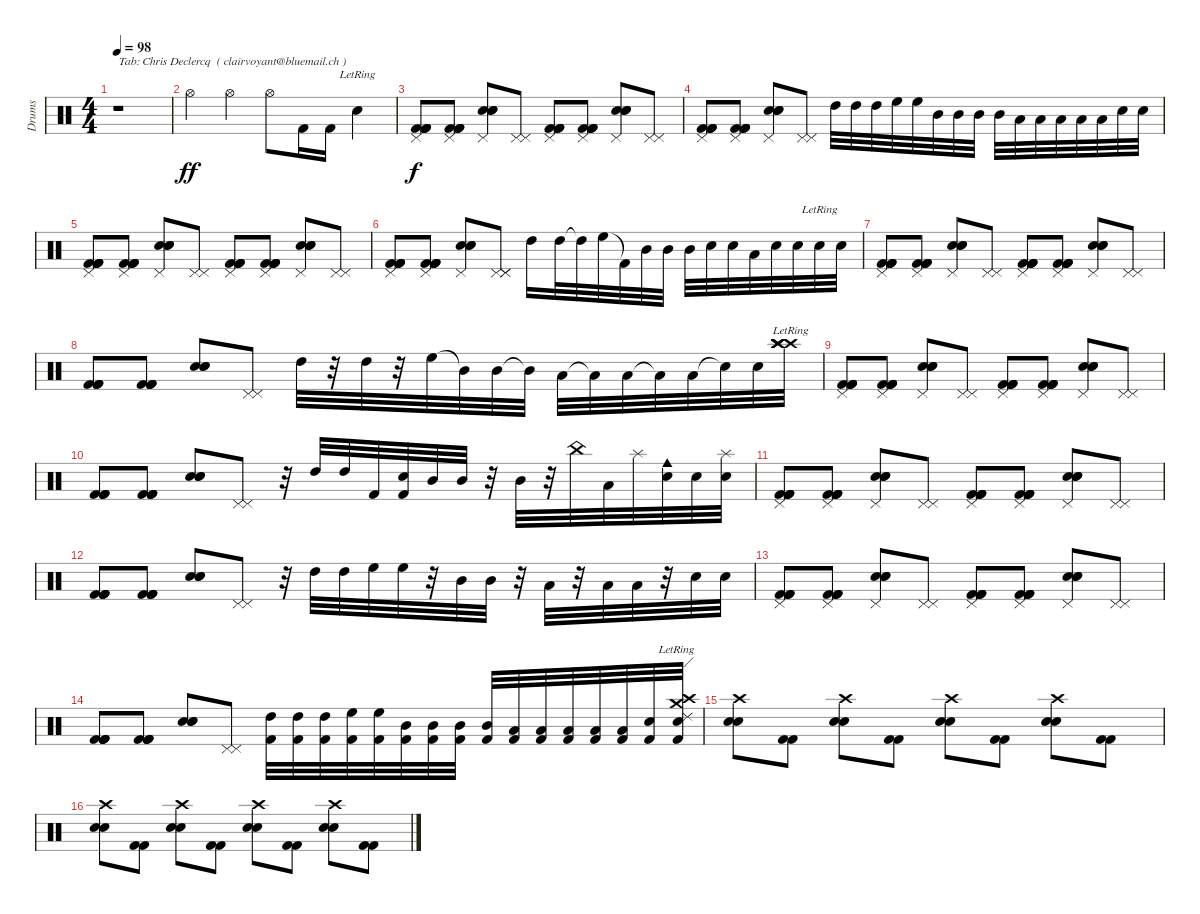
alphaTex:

\track ("Drums" "Drums") {instrument percussion}
\staff {score}
\articulation defaults
\ts (4 4)
\tempo 98
\clef neutral
\ks c
r.1{txt "Tab: Chris Declercq  ( clairvoyant@bluemail.ch )" dy ff} |
"Hi-Hat (open)".4 "Hi-Hat (open)".4 "Hi-Hat (open)".8 "Kick (hit) 2".16 "Kick (hit) 2".16 "Electric Snare (hit)"{lr}.4 |
("Pedal Hi-Hat (hit)" "Kick (hit) 2" "Kick (hit) 2" "Kick (hit) 2" "Kick (hit) 2").8{dy f} ("Pedal Hi-Hat (hit)" "Kick (hit) 2" "Kick (hit) 2" "Kick (hit) 2" "Kick (hit) 2").8 ("Pedal Hi-Hat (hit)" "Electric Snare (hit)" "Electric Snare (hit)" "Electric Snare (hit)").8 ("Pedal Hi-Hat (hit)" "Pedal Hi-Hat (hit)").8 ("Pedal Hi-Hat (hit)" "Kick (hit) 2" "Kick (hit) 2" "Kick (hit) 2" "Kick (hit) 2").8 ("Pedal Hi-Hat (hit)" "Kick (hit) 2" "Kick (hit) 2" "Kick (hit) 2" "Kick (hit) 2").8 ("Pedal Hi-Hat (hit)" "Electric Snare (hit)" "Electric Snare (hit)" "Electric Snare (hit)").8 ("Pedal Hi-Hat (hit)" "Pedal Hi-Hat (hit)").8 |
("Pedal Hi-Hat (hit)" "Kick (hit) 2" "Kick (hit) 2" "Kick (hit) 2" "Kick (hit) 2").8 ("Pedal Hi-Hat (hit)" "Kick (hit) 2" "Kick (hit) 2" "Kick (hit) 2" "Kick (hit) 2").8 ("Pedal Hi-Hat (hit)" "Electric Snare (hit)" "Electric Snare (hit)" "Electric Snare (hit)").8 ("Pedal Hi-Hat (hit)" "Pedal Hi-Hat (hit)").8 "High Tom (hit)".32 "High Tom (hit)".32 "High Tom (hit)".32 "High Floor Tom (hit)".32 "High Floor Tom (hit)".32 "Mid Tom (hit)".32 "Mid Tom (hit)".32 "Mid Tom (hit)".32 "Mid Tom (hit)".32 "Low Tom (hit)".32 "Low Tom (hit)".32 "Low Tom (hit)".32 "Low Floor Tom (hit)".32 "Low Floor Tom (hit)".32 "Electric Snare (hit)".32 "Electric Snare (hit)".32 |
("Pedal Hi-Hat (hit)" "Kick (hit) 2" "Kick (hit) 2" "Kick (hit) 2" "Kick (hit) 2").8 ("Pedal Hi-Hat (hit)" "Kick (hit) 2" "Kick (hit) 2" "Kick (hit) 2" "Kick (hit) 2").8 ("Pedal Hi-Hat (hit)" "Electric Snare (hit)" "Electric Snare (hit)" "Electric Snare (hit)").8 ("Pedal Hi-Hat (hit)" "Pedal Hi-Hat (hit)").8 ("Pedal Hi-Hat (hit)" "Kick (hit) 2" "Kick (hit) 2" "Kick (hit) 2" "Kick (hit) 2").8 ("Pedal Hi-Hat (hit)" "Kick (hit) 2" "Kick (hit) 2" "Kick (hit) 2" "Kick (hit) 2").8 ("Pedal Hi-Hat (hit)" "Electric Snare (hit)" "Electric Snare (hit)" "Electric Snare (hit)").8 ("Pedal Hi-Hat (hit)" "Pedal Hi-Hat (hit)").8 |
("Pedal Hi-Hat (hit)" "Kick (hit) 2" "Kick (hit) 2" "Kick (hit) 2" "Kick (hit) 2").8 ("Pedal Hi-Hat (hit)" "Kick (hit) 2" "Kick (hit) 2" "Kick (hit) 2" "Kick (hit) 2").8 ("Pedal Hi-Hat (hit)" "Electric Snare (hit)" "Electric Snare (hit)" "Electric Snare (hit)").8 ("Pedal Hi-Hat (hit)" "Pedal Hi-Hat (hit)" "Pedal Hi-Hat (hit)").8 "High Tom (hit)".16 "High Tom (hit)".32 "High Tom (hit)"{t}.32 "High Floor Tom (hit)".32 "Kick (hit) 2"{t}.32 "Mid Tom (hit)".32 "Mid Tom (hit)".32 "Mid Tom (hit)".32 "Snare (hit) 2".32 "Snare (hit) 2".32 "Low Tom (hit)".32 "Snare (hit) 2".32 "Electric Snare (hit)".32 "Snare (hit) 2"{lr}.32 "Snare (hit) 2".32 |
("Pedal Hi-Hat (hit)" "Kick (hit) 2" "Kick (hit) 2" "Kick (hit) 2" "Kick (hit) 2").8 ("Pedal Hi-Hat (hit)" "Kick (hit) 2" "Kick (hit) 2" "Kick (hit) 2" "Kick (hit) 2").8 ("Pedal Hi-Hat (hit)" "Electric Snare (hit)" "Electric Snare (hit)" "Electric Snare (hit)").8 ("Pedal Hi-Hat (hit)" "Pedal Hi-Hat (hit)").8 ("Pedal Hi-Hat (hit)" "Kick (hit) 2" "Kick (hit) 2" "Kick (hit) 2" "Kick (hit) 2").8 ("Pedal Hi-Hat (hit)" "Kick (hit) 2" "Kick (hit) 2" "Kick (hit) 2" "Kick (hit) 2").8 ("Pedal Hi-Hat (hit)" "Electric Snare (hit)" "Electric Snare (hit)" "Electric Snare (hit)").8 ("Pedal Hi-Hat (hit)" "Pedal Hi-Hat (hit)").8 |
("Kick (hit) 2" "Kick (hit) 2" "Kick (hit) 2" "Kick (hit) 2").8 ("Kick (hit) 2" "Kick (hit) 2" "Kick (hit) 2" "Kick (hit) 2").8 ("Electric Snare (hit)" "Electric Snare (hit)" "Electric Snare (hit)").8 ("Pedal Hi-Hat (hit)" "Pedal Hi-Hat (hit)").8 "High Tom (hit)".32 r.32 "High Tom (hit)".32 r.32 "High Floor Tom (hit)".32 "Mid Tom (hit)"{t}.32 "Mid Tom (hit)".32 "Mid Tom (hit)"{t}.32 "Low Tom (hit)".32 "Low Tom (hit)"{t}.32 "Low Tom (hit)".32 "Low Tom (hit)"{t}.32 "Low Floor Tom (hit)".32 "Snare (hit)"{t}.32 "Electric Snare (hit)".32 ("Crash high (hit)"{lr} "Crash high (hit)"{lr} "Crash high (hit)"{lr} "Crash high (hit)"{lr}).32 |
("Pedal Hi-Hat (hit)" "Kick (hit) 2" "Kick (hit) 2" "Kick (hit) 2" "Kick (hit) 2").8 ("Pedal Hi-Hat (hit)" "Kick (hit) 2" "Kick (hit) 2" "Kick (hit) 2" "Kick (hit) 2").8 ("Pedal Hi-Hat (hit)" "Electric Snare (hit)" "Electric Snare (hit)" "Electric Snare (hit)").8 ("Pedal Hi-Hat (hit)" "Pedal Hi-Hat (hit)").8 ("Pedal Hi-Hat (hit)" "Kick (hit) 2" "Kick (hit) 2" "Kick (hit) 2" "Kick (hit) 2").8 ("Pedal Hi-Hat (hit)" "Kick (hit) 2" "Kick (hit) 2" "Kick (hit) 2" "Kick (hit) 2").8 ("Pedal Hi-Hat (hit)" "Electric Snare (hit)" "Electric Snare (hit)" "Electric Snare (hit)").8 ("Pedal Hi-Hat (hit)" "Pedal Hi-Hat (hit)").8 |
("Kick (hit) 2" "Kick (hit) 2" "Kick (hit) 2" "Kick (hit) 2").8 ("Kick (hit) 2" "Kick (hit) 2" "Kick (hit) 2" "Kick (hit) 2").8 ("Electric Snare (hit)" "Electric Snare (hit)" "Electric Snare (hit)").8 ("Pedal Hi-Hat (hit)" "Pedal Hi-Hat (hit)").8 r.32 "High Tom (hit)".32 "High Tom (hit)".32 "Kick (hit) 2".32 ("Electric Snare (hit)" "Kick (hit) 2").32 "Mid Tom (hit)".32 "Mid Tom (hit)".32 r.32 "Mid Tom (hit)".32 r.32 "China (hit)".32 "Low Tom (hit)".32 "Splash (hit)".32 ("Electric Snare (hit)" "Cowbell medium (hit)").32 "Electric Snare (hit)".32 ("Splash (hit)" "Electric Snare (hit)").32 |
("Pedal Hi-Hat (hit)" "Kick (hit) 2" "Kick (hit) 2" "Kick (hit) 2" "Kick (hit) 2").8 ("Pedal Hi-Hat (hit)" "Kick (hit) 2" "Kick (hit) 2" "Kick (hit) 2" "Kick (hit) 2").8 ("Pedal Hi-Hat (hit)" "Electric Snare (hit)" "Electric Snare (hit)" "Electric Snare (hit)").8 ("Pedal Hi-Hat (hit)" "Pedal Hi-Hat (hit)").8 ("Pedal Hi-Hat (hit)" "Kick (hit) 2" "Kick (hit) 2" "Kick (hit) 2" "Kick (hit) 2").8 ("Pedal Hi-Hat (hit)" "Kick (hit) 2" "Kick (hit) 2" "Kick (hit) 2" "Kick (hit) 2").8 ("Pedal Hi-Hat (hit)" "Electric Snare (hit)" "Electric Snare (hit)" "Electric Snare (hit)").8 ("Pedal Hi-Hat (hit)" "Pedal Hi-Hat (hit)").8 |
("Kick (hit) 2" "Kick (hit) 2" "Kick (hit) 2" "Kick (hit) 2").8 ("Kick (hit) 2" "Kick (hit) 2" "Kick (hit) 2" "Kick (hit) 2").8 ("Electric Snare (hit)" "Electric Snare (hit)" "Electric Snare (hit)").8 ("Pedal Hi-Hat (hit)" "Pedal Hi-Hat (hit)").8 r.32 "High Tom (hit)".32 "High Tom (hit)".32 "High Floor Tom (hit)".32 "High Floor Tom (hit)".32 r.32 "Mid Tom (hit)".32 "Mid Tom (hit)".32 r.32 "Low Floor Tom (hit)".32 r.32 "Low Tom (hit)".32 "Low Floor Tom (hit)".32 r.32 "Electric Snare (hit)".32 "Electric Snare (hit)".32 |
("Pedal Hi-Hat (hit)" "Kick (hit) 2" "Kick (hit) 2" "Kick (hit) 2" "Kick (hit) 2").8 ("Pedal Hi-Hat (hit)" "Kick (hit) 2" "Kick (hit) 2" "Kick (hit) 2" "Kick (hit) 2").8 ("Pedal Hi-Hat (hit)" "Electric Snare (hit)" "Electric Snare (hit)" "Electric Snare (hit)").8 ("Pedal Hi-Hat (hit)" "Pedal Hi-Hat (hit)").8 ("Pedal Hi-Hat (hit)" "Kick (hit) 2" "Kick (hit) 2" "Kick (hit) 2" "Kick (hit) 2").8 ("Pedal Hi-Hat (hit)" "Kick (hit) 2" "Kick (hit) 2" "Kick (hit) 2" "Kick (hit) 2").8 ("Pedal Hi-Hat (hit)" "Electric Snare (hit)" "Electric Snare (hit)" "Electric Snare (hit)").8 ("Pedal Hi-Hat (hit)" "Pedal Hi-Hat (hit)").8 |
("Kick (hit) 2" "Kick (hit) 2" "Kick (hit) 2" "Kick (hit) 2").8 ("Kick (hit) 2" "Kick (hit) 2" "Kick (hit) 2" "Kick (hit) 2").8 ("Electric Snare (hit)" "Electric Snare (hit)" "Electric Snare (hit)").8 ("Pedal Hi-Hat (hit)" "Pedal Hi-Hat (hit)").8 ("Kick (hit) 2" "High Tom (hit)").32 ("Kick (hit) 2" "High Tom (hit)").32 ("Kick (hit) 2" "High Tom (hit)").32 ("Kick (hit) 2" "High Floor Tom (hit)").32 ("Kick (hit) 2" "High Floor Tom (hit)").32 ("Kick (hit) 2" "Mid Tom (hit)").32 ("Kick (hit) 2" "Mid Tom (hit)").32 ("Kick (hit) 2" "Mid Tom (hit)").32 ("Kick (hit) 2" "Mid Tom (hit)").32 ("Kick (hit) 2" "Low Tom (hit)").32 ("Kick (hit) 2" "Low Tom (hit)").32 ("Kick (hit) 2" "Low Tom (hit)").32 ("Kick (hit) 2" "Low Floor Tom (hit)").32 ("Kick (hit) 2" "Low Floor Tom (hit)").32 ("Kick (hit) 2" "Electric Snare (hit)").32 ("Kick (hit) 2"{lr} "Electric Snare (hit)"{lr} "Crash high (hit)"{lr} "Crash medium (hit)"{lr} "Ride (edge) 2"{lr}).32 |
("Crash high (hit)" "Electric Snare (hit)" "Electric Snare (hit)").8 ("Kick (hit) 2" "Kick (hit) 2").8 ("Crash high (hit)" "Electric Snare (hit)" "Electric Snare (hit)").8 ("Kick (hit) 2" "Kick (hit) 2").8 ("Crash high (hit)" "Electric Snare (hit)" "Electric Snare (hit)").8 ("Kick (hit) 2" "Kick (hit) 2").8 ("Crash high (hit)" "Electric Snare (hit)" "Electric Snare (hit)").8 ("Kick (hit) 2" "Kick (hit) 2").8 |
("Crash high (hit)" "Electric Snare (hit)" "Electric Snare (hit)").8 ("Kick (hit) 2" "Kick (hit) 2").8 ("Crash high (hit)" "Electric Snare (hit)" "Electric Snare (hit)").8 ("Kick (hit) 2" "Kick (hit) 2").8 ("Crash high (hit)" "Electric Snare (hit)" "Electric Snare (hit)").8 ("Kick (hit) 2" "Kick (hit) 2").8 ("Crash high (hit)" "Electric Snare (hit)" "Electric Snare (hit)").8 ("Kick (hit) 2" "Kick (hit) 2").8
